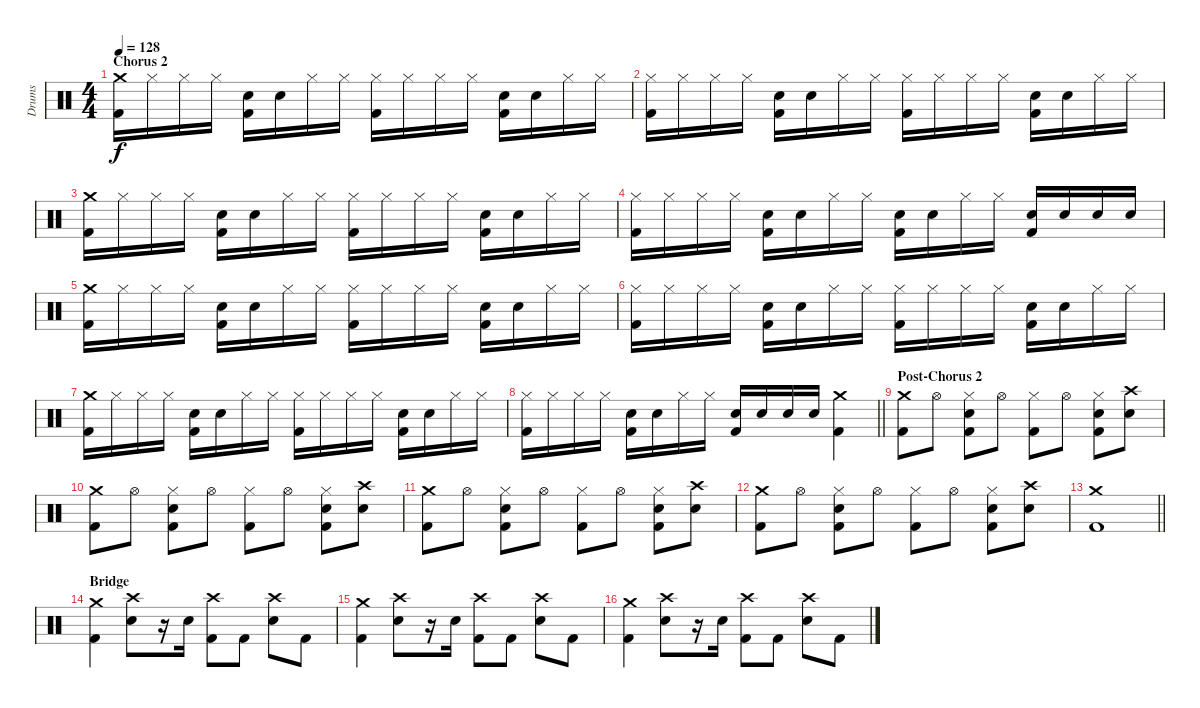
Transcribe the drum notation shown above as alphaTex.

\track ("Drums" "Drums") {instrument percussion}
\staff {score}
\articulation defaults
\ts (4 4)
\section ("" "Chorus 2")
\tempo 128
\clef neutral
\ks c
("Crash medium (hit)" "Kick (hit) 2").16{dy f} "Hi-Hat (closed)".16 "Hi-Hat (closed)".16 "Hi-Hat (closed)".16 ("Electric Snare (hit)" "Kick (hit) 2").16 "Electric Snare (hit)".16 "Hi-Hat (closed)".16 "Hi-Hat (closed)".16 ("Hi-Hat (closed)" "Kick (hit) 2").16 "Hi-Hat (closed)".16 "Hi-Hat (closed)".16 "Hi-Hat (closed)".16 ("Electric Snare (hit)" "Kick (hit) 2").16 "Electric Snare (hit)".16 "Hi-Hat (closed)".16 "Hi-Hat (closed)".16 |
("Hi-Hat (closed)" "Kick (hit) 2").16 "Hi-Hat (closed)".16 "Hi-Hat (closed)".16 "Hi-Hat (closed)".16 ("Electric Snare (hit)" "Kick (hit) 2").16 "Electric Snare (hit)".16 "Hi-Hat (closed)".16 "Hi-Hat (closed)".16 ("Hi-Hat (closed)" "Kick (hit) 2").16 "Hi-Hat (closed)".16 "Hi-Hat (closed)".16 "Hi-Hat (closed)".16 ("Electric Snare (hit)" "Kick (hit) 2").16 "Electric Snare (hit)".16 "Hi-Hat (closed)".16 "Hi-Hat (closed)".16 |
("Crash medium (hit)" "Kick (hit) 2").16 "Hi-Hat (closed)".16 "Hi-Hat (closed)".16 "Hi-Hat (closed)".16 ("Electric Snare (hit)" "Kick (hit) 2").16 "Electric Snare (hit)".16 "Hi-Hat (closed)".16 "Hi-Hat (closed)".16 ("Hi-Hat (closed)" "Kick (hit) 2").16 "Hi-Hat (closed)".16 "Hi-Hat (closed)".16 "Hi-Hat (closed)".16 ("Electric Snare (hit)" "Kick (hit) 2").16 "Electric Snare (hit)".16 "Hi-Hat (closed)".16 "Hi-Hat (closed)".16 |
("Hi-Hat (closed)" "Kick (hit) 2").16 "Hi-Hat (closed)".16 "Hi-Hat (closed)".16 "Hi-Hat (closed)".16 ("Electric Snare (hit)" "Kick (hit) 2").16 "Electric Snare (hit)".16 "Hi-Hat (closed)".16 "Hi-Hat (closed)".16 ("Electric Snare (hit)" "Kick (hit) 2").16 "Electric Snare (hit)".16 "Hi-Hat (closed)".16 "Hi-Hat (closed)".16 ("Electric Snare (hit)" "Kick (hit) 2").16 "Electric Snare (hit)".16 "Electric Snare (hit)".16 "Electric Snare (hit)".16 |
("Crash medium (hit)" "Kick (hit) 2").16 "Hi-Hat (closed)".16 "Hi-Hat (closed)".16 "Hi-Hat (closed)".16 ("Electric Snare (hit)" "Kick (hit) 2").16 "Electric Snare (hit)".16 "Hi-Hat (closed)".16 "Hi-Hat (closed)".16 ("Hi-Hat (closed)" "Kick (hit) 2").16 "Hi-Hat (closed)".16 "Hi-Hat (closed)".16 "Hi-Hat (closed)".16 ("Electric Snare (hit)" "Kick (hit) 2").16 "Electric Snare (hit)".16 "Hi-Hat (closed)".16 "Hi-Hat (closed)".16 |
("Hi-Hat (closed)" "Kick (hit) 2").16 "Hi-Hat (closed)".16 "Hi-Hat (closed)".16 "Hi-Hat (closed)".16 ("Electric Snare (hit)" "Kick (hit) 2").16 "Electric Snare (hit)".16 "Hi-Hat (closed)".16 "Hi-Hat (closed)".16 ("Hi-Hat (closed)" "Kick (hit) 2").16 "Hi-Hat (closed)".16 "Hi-Hat (closed)".16 "Hi-Hat (closed)".16 ("Electric Snare (hit)" "Kick (hit) 2").16 "Electric Snare (hit)".16 "Hi-Hat (closed)".16 "Hi-Hat (closed)".16 |
("Crash medium (hit)" "Kick (hit) 2").16 "Hi-Hat (closed)".16 "Hi-Hat (closed)".16 "Hi-Hat (closed)".16 ("Electric Snare (hit)" "Kick (hit) 2").16 "Electric Snare (hit)".16 "Hi-Hat (closed)".16 "Hi-Hat (closed)".16 ("Hi-Hat (closed)" "Kick (hit) 2").16 "Hi-Hat (closed)".16 "Hi-Hat (closed)".16 "Hi-Hat (closed)".16 ("Electric Snare (hit)" "Kick (hit) 2").16 "Electric Snare (hit)".16 "Hi-Hat (closed)".16 "Hi-Hat (closed)".16 |
\barLineRight lightlight
("Hi-Hat (closed)" "Kick (hit) 2").16 "Hi-Hat (closed)".16 "Hi-Hat (closed)".16 "Hi-Hat (closed)".16 ("Electric Snare (hit)" "Kick (hit) 2").16 "Electric Snare (hit)".16 "Hi-Hat (closed)".16 "Hi-Hat (closed)".16 ("Electric Snare (hit)" "Kick (hit) 2").16 "Electric Snare (hit)".16 "Electric Snare (hit)".16 "Electric Snare (hit)".16 ("Crash medium (hit)" "Kick (hit) 2").4 |
\section ("" "Post-Chorus 2")
("Crash medium (hit)" "Kick (hit) 2").8 "Hi-Hat (open)".8 ("Hi-Hat (closed)" "Electric Snare (hit)" "Kick (hit) 2").8 "Hi-Hat (open)".8 ("Hi-Hat (closed)" "Kick (hit) 2").8 "Hi-Hat (open)".8 ("Hi-Hat (closed)" "Electric Snare (hit)" "Kick (hit) 2").8 ("Crash high (hit)" "Electric Snare (hit)").8 |
("Crash medium (hit)" "Kick (hit) 2").8 "Hi-Hat (open)".8 ("Hi-Hat (closed)" "Electric Snare (hit)" "Kick (hit) 2").8 "Hi-Hat (open)".8 ("Hi-Hat (closed)" "Kick (hit) 2").8 "Hi-Hat (open)".8 ("Hi-Hat (closed)" "Electric Snare (hit)" "Kick (hit) 2").8 ("Crash high (hit)" "Electric Snare (hit)").8 |
("Crash medium (hit)" "Kick (hit) 2").8 "Hi-Hat (open)".8 ("Hi-Hat (closed)" "Electric Snare (hit)" "Kick (hit) 2").8 "Hi-Hat (open)".8 ("Hi-Hat (closed)" "Kick (hit) 2").8 "Hi-Hat (open)".8 ("Hi-Hat (closed)" "Electric Snare (hit)" "Kick (hit) 2").8 ("Crash high (hit)" "Electric Snare (hit)").8 |
("Crash medium (hit)" "Kick (hit) 2").8 "Hi-Hat (open)".8 ("Hi-Hat (closed)" "Electric Snare (hit)" "Kick (hit) 2").8 "Hi-Hat (open)".8 ("Hi-Hat (closed)" "Kick (hit) 2").8 "Hi-Hat (open)".8 ("Hi-Hat (closed)" "Electric Snare (hit)" "Kick (hit) 2").8 ("Crash high (hit)" "Electric Snare (hit)").8 |
\barLineRight lightlight
("Crash medium (hit)" "Kick (hit) 2").1 |
\section ("" "Bridge")
("Crash medium (hit)" "Kick (hit) 2").4 ("Crash high (hit)" "Electric Snare (hit)").8 r.16 "Electric Snare (hit)".16 ("Crash high (hit)" "Kick (hit) 2").8 "Kick (hit) 2".8 ("Crash high (hit)" "Electric Snare (hit)").8 "Kick (hit) 2".8 |
("Crash medium (hit)" "Kick (hit) 2").4 ("Crash high (hit)" "Electric Snare (hit)").8 r.16 "Electric Snare (hit)".16 ("Crash high (hit)" "Kick (hit) 2").8 "Kick (hit) 2".8 ("Crash high (hit)" "Electric Snare (hit)").8 "Kick (hit) 2".8 |
("Crash medium (hit)" "Kick (hit) 2").4 ("Crash high (hit)" "Electric Snare (hit)").8 r.16 "Electric Snare (hit)".16 ("Crash high (hit)" "Kick (hit) 2").8 "Kick (hit) 2".8 ("Crash high (hit)" "Electric Snare (hit)").8 "Kick (hit) 2".8
